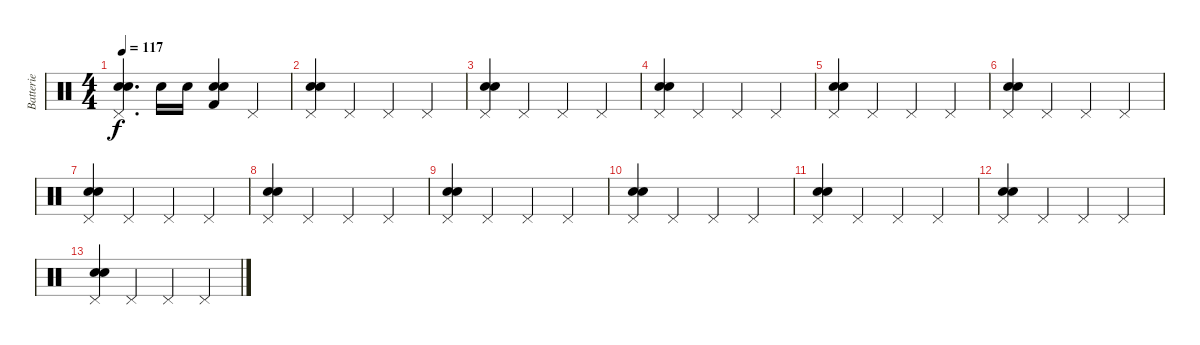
\track ("Batterie" "Batterie") {instrument percussion}
\staff {score}
\articulation defaults
\ts (4 4)
\tempo 117
\clef neutral
\ks c
("Pedal Hi-Hat (hit)" "Snare (hit) 2" "Electric Snare (hit)").4{d dy f} "Electric Snare (hit)".16 "Electric Snare (hit)".16 ("Kick (hit) 2" "Snare (hit) 2" "Electric Snare (hit)").4 "Pedal Hi-Hat (hit)".4 |
("Pedal Hi-Hat (hit)" "Snare (hit) 2" "Electric Snare (hit)").4 "Pedal Hi-Hat (hit)".4 "Pedal Hi-Hat (hit)".4 "Pedal Hi-Hat (hit)".4 |
("Pedal Hi-Hat (hit)" "Snare (hit) 2" "Electric Snare (hit)").4 "Pedal Hi-Hat (hit)".4 "Pedal Hi-Hat (hit)".4 "Pedal Hi-Hat (hit)".4 |
("Pedal Hi-Hat (hit)" "Snare (hit) 2" "Electric Snare (hit)").4 "Pedal Hi-Hat (hit)".4 "Pedal Hi-Hat (hit)".4 "Pedal Hi-Hat (hit)".4 |
("Pedal Hi-Hat (hit)" "Snare (hit) 2" "Electric Snare (hit)").4 "Pedal Hi-Hat (hit)".4 "Pedal Hi-Hat (hit)".4 "Pedal Hi-Hat (hit)".4 |
("Pedal Hi-Hat (hit)" "Snare (hit) 2" "Electric Snare (hit)").4 "Pedal Hi-Hat (hit)".4 "Pedal Hi-Hat (hit)".4 "Pedal Hi-Hat (hit)".4 |
("Pedal Hi-Hat (hit)" "Snare (hit) 2" "Electric Snare (hit)").4 "Pedal Hi-Hat (hit)".4 "Pedal Hi-Hat (hit)".4 "Pedal Hi-Hat (hit)".4 |
("Pedal Hi-Hat (hit)" "Snare (hit) 2" "Electric Snare (hit)").4 "Pedal Hi-Hat (hit)".4 "Pedal Hi-Hat (hit)".4 "Pedal Hi-Hat (hit)".4 |
("Pedal Hi-Hat (hit)" "Snare (hit) 2" "Electric Snare (hit)").4 "Pedal Hi-Hat (hit)".4 "Pedal Hi-Hat (hit)".4 "Pedal Hi-Hat (hit)".4 |
("Pedal Hi-Hat (hit)" "Snare (hit) 2" "Electric Snare (hit)").4 "Pedal Hi-Hat (hit)".4 "Pedal Hi-Hat (hit)".4 "Pedal Hi-Hat (hit)".4 |
("Pedal Hi-Hat (hit)" "Snare (hit) 2" "Electric Snare (hit)").4 "Pedal Hi-Hat (hit)".4 "Pedal Hi-Hat (hit)".4 "Pedal Hi-Hat (hit)".4 |
("Pedal Hi-Hat (hit)" "Snare (hit) 2" "Electric Snare (hit)").4 "Pedal Hi-Hat (hit)".4 "Pedal Hi-Hat (hit)".4 "Pedal Hi-Hat (hit)".4 |
("Pedal Hi-Hat (hit)" "Snare (hit) 2" "Electric Snare (hit)").4 "Pedal Hi-Hat (hit)".4 "Pedal Hi-Hat (hit)".4 "Pedal Hi-Hat (hit)".4
